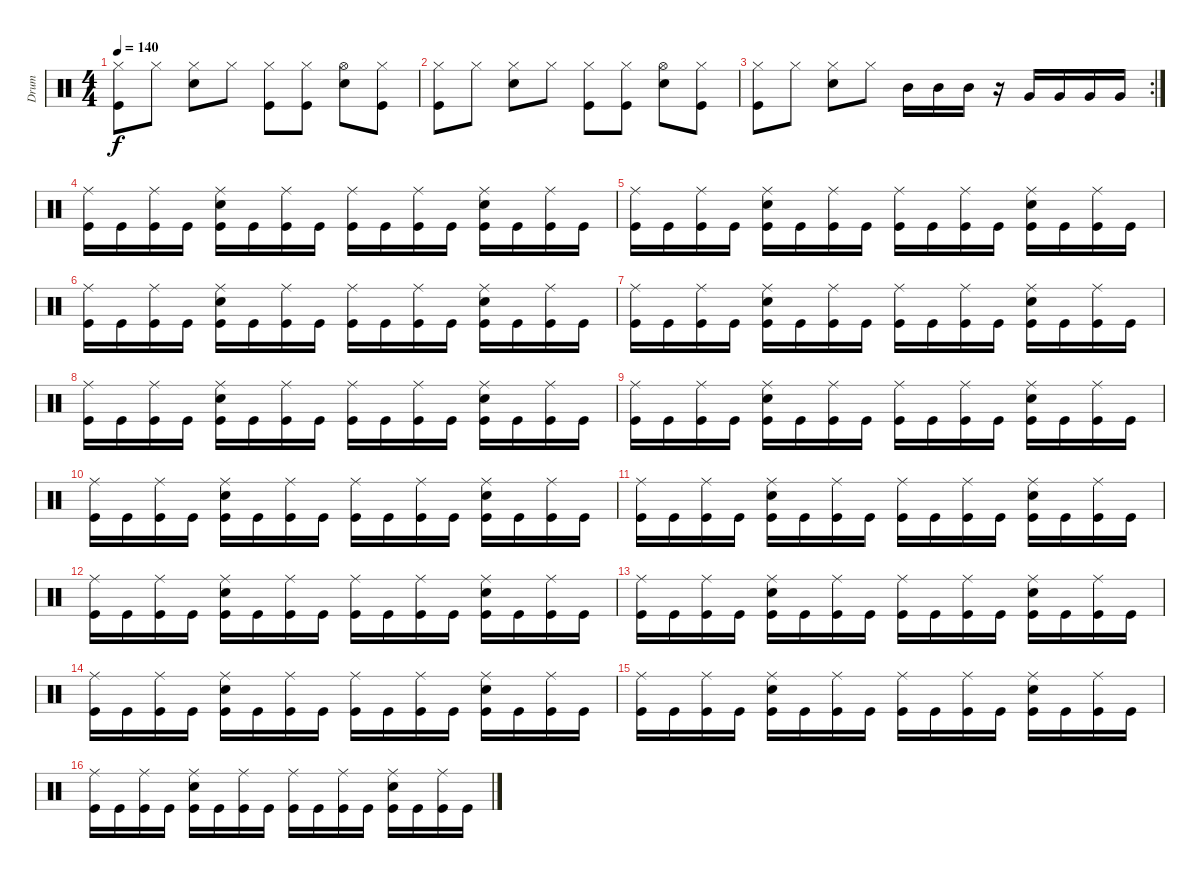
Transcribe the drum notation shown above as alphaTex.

\track ("Drum" "Drum") {instrument percussion}
\staff {score}
\articulation defaults
\ts (4 4)
\tempo 140
\clef neutral
\ks c
("Kick (hit)" "Hi-Hat (closed)").8{dy f} "Hi-Hat (closed)".8 ("Electric Snare (hit)" "Hi-Hat (closed)").8 "Hi-Hat (closed)".8 ("Kick (hit)" "Hi-Hat (closed)").8 ("Kick (hit)" "Hi-Hat (closed)").8 ("Electric Snare (hit)" "Hi-Hat (open)").8 ("Kick (hit)" "Hi-Hat (closed)").8 |
("Kick (hit)" "Hi-Hat (closed)").8 "Hi-Hat (closed)".8 ("Electric Snare (hit)" "Hi-Hat (closed)").8 "Hi-Hat (closed)".8 ("Kick (hit)" "Hi-Hat (closed)").8 ("Kick (hit)" "Hi-Hat (closed)").8 ("Electric Snare (hit)" "Hi-Hat (open)").8 ("Kick (hit)" "Hi-Hat (closed)").8 |
\rc 2
("Kick (hit)" "Hi-Hat (closed)").8 "Hi-Hat (closed)".8 ("Electric Snare (hit)" "Hi-Hat (closed)").8 "Hi-Hat (closed)".8 "Mid Tom (hit)".16 "Mid Tom (hit)".16 "Mid Tom (hit)".16 r.16 "Very Low Tom (hit)".16 "Very Low Tom (hit)".16 "Very Low Tom (hit)".16 "Very Low Tom (hit)".16 |
("Kick (hit)" "Ride (middle)").16 "Kick (hit)".16 ("Kick (hit)" "Ride (middle)").16 "Kick (hit)".16 ("Kick (hit)" "Electric Snare (hit)" "Ride (middle)").16 "Kick (hit)".16 ("Kick (hit)" "Ride (middle)").16 "Kick (hit)".16 ("Kick (hit)" "Ride (middle)").16 "Kick (hit)".16 ("Kick (hit)" "Ride (middle)").16 "Kick (hit)".16 ("Kick (hit)" "Electric Snare (hit)" "Ride (middle)").16 "Kick (hit)".16 ("Kick (hit)" "Ride (middle)").16 "Kick (hit)".16 |
("Kick (hit)" "Ride (middle)").16 "Kick (hit)".16 ("Kick (hit)" "Ride (middle)").16 "Kick (hit)".16 ("Kick (hit)" "Electric Snare (hit)" "Ride (middle)").16 "Kick (hit)".16 ("Kick (hit)" "Ride (middle)").16 "Kick (hit)".16 ("Kick (hit)" "Ride (middle)").16 "Kick (hit)".16 ("Kick (hit)" "Ride (middle)").16 "Kick (hit)".16 ("Kick (hit)" "Electric Snare (hit)" "Ride (middle)").16 "Kick (hit)".16 ("Kick (hit)" "Ride (middle)").16 "Kick (hit)".16 |
("Kick (hit)" "Ride (middle)").16 "Kick (hit)".16 ("Kick (hit)" "Ride (middle)").16 "Kick (hit)".16 ("Kick (hit)" "Electric Snare (hit)" "Ride (middle)").16 "Kick (hit)".16 ("Kick (hit)" "Ride (middle)").16 "Kick (hit)".16 ("Kick (hit)" "Ride (middle)").16 "Kick (hit)".16 ("Kick (hit)" "Ride (middle)").16 "Kick (hit)".16 ("Kick (hit)" "Electric Snare (hit)" "Ride (middle)").16 "Kick (hit)".16 ("Kick (hit)" "Ride (middle)").16 "Kick (hit)".16 |
("Kick (hit)" "Ride (middle)").16 "Kick (hit)".16 ("Kick (hit)" "Ride (middle)").16 "Kick (hit)".16 ("Kick (hit)" "Electric Snare (hit)" "Ride (middle)").16 "Kick (hit)".16 ("Kick (hit)" "Ride (middle)").16 "Kick (hit)".16 ("Kick (hit)" "Ride (middle)").16 "Kick (hit)".16 ("Kick (hit)" "Ride (middle)").16 "Kick (hit)".16 ("Kick (hit)" "Electric Snare (hit)" "Ride (middle)").16 "Kick (hit)".16 ("Kick (hit)" "Ride (middle)").16 "Kick (hit)".16 |
("Kick (hit)" "Ride (middle)").16 "Kick (hit)".16 ("Kick (hit)" "Ride (middle)").16 "Kick (hit)".16 ("Kick (hit)" "Electric Snare (hit)" "Ride (middle)").16 "Kick (hit)".16 ("Kick (hit)" "Ride (middle)").16 "Kick (hit)".16 ("Kick (hit)" "Ride (middle)").16 "Kick (hit)".16 ("Kick (hit)" "Ride (middle)").16 "Kick (hit)".16 ("Kick (hit)" "Electric Snare (hit)" "Ride (middle)").16 "Kick (hit)".16 ("Kick (hit)" "Ride (middle)").16 "Kick (hit)".16 |
("Kick (hit)" "Ride (middle)").16 "Kick (hit)".16 ("Kick (hit)" "Ride (middle)").16 "Kick (hit)".16 ("Kick (hit)" "Electric Snare (hit)" "Ride (middle)").16 "Kick (hit)".16 ("Kick (hit)" "Ride (middle)").16 "Kick (hit)".16 ("Kick (hit)" "Ride (middle)").16 "Kick (hit)".16 ("Kick (hit)" "Ride (middle)").16 "Kick (hit)".16 ("Kick (hit)" "Electric Snare (hit)" "Ride (middle)").16 "Kick (hit)".16 ("Kick (hit)" "Ride (middle)").16 "Kick (hit)".16 |
("Kick (hit)" "Ride (middle)").16 "Kick (hit)".16 ("Kick (hit)" "Ride (middle)").16 "Kick (hit)".16 ("Kick (hit)" "Electric Snare (hit)" "Ride (middle)").16 "Kick (hit)".16 ("Kick (hit)" "Ride (middle)").16 "Kick (hit)".16 ("Kick (hit)" "Ride (middle)").16 "Kick (hit)".16 ("Kick (hit)" "Ride (middle)").16 "Kick (hit)".16 ("Kick (hit)" "Electric Snare (hit)" "Ride (middle)").16 "Kick (hit)".16 ("Kick (hit)" "Ride (middle)").16 "Kick (hit)".16 |
("Kick (hit)" "Ride (middle)").16 "Kick (hit)".16 ("Kick (hit)" "Ride (middle)").16 "Kick (hit)".16 ("Kick (hit)" "Electric Snare (hit)" "Ride (middle)").16 "Kick (hit)".16 ("Kick (hit)" "Ride (middle)").16 "Kick (hit)".16 ("Kick (hit)" "Ride (middle)").16 "Kick (hit)".16 ("Kick (hit)" "Ride (middle)").16 "Kick (hit)".16 ("Kick (hit)" "Electric Snare (hit)" "Ride (middle)").16 "Kick (hit)".16 ("Kick (hit)" "Ride (middle)").16 "Kick (hit)".16 |
("Kick (hit)" "Ride (middle)").16 "Kick (hit)".16 ("Kick (hit)" "Ride (middle)").16 "Kick (hit)".16 ("Kick (hit)" "Electric Snare (hit)" "Ride (middle)").16 "Kick (hit)".16 ("Kick (hit)" "Ride (middle)").16 "Kick (hit)".16 ("Kick (hit)" "Ride (middle)").16 "Kick (hit)".16 ("Kick (hit)" "Ride (middle)").16 "Kick (hit)".16 ("Kick (hit)" "Electric Snare (hit)" "Ride (middle)").16 "Kick (hit)".16 ("Kick (hit)" "Ride (middle)").16 "Kick (hit)".16 |
("Kick (hit)" "Ride (middle)").16 "Kick (hit)".16 ("Kick (hit)" "Ride (middle)").16 "Kick (hit)".16 ("Kick (hit)" "Electric Snare (hit)" "Ride (middle)").16 "Kick (hit)".16 ("Kick (hit)" "Ride (middle)").16 "Kick (hit)".16 ("Kick (hit)" "Ride (middle)").16 "Kick (hit)".16 ("Kick (hit)" "Ride (middle)").16 "Kick (hit)".16 ("Kick (hit)" "Electric Snare (hit)" "Ride (middle)").16 "Kick (hit)".16 ("Kick (hit)" "Ride (middle)").16 "Kick (hit)".16 |
("Kick (hit)" "Ride (middle)").16 "Kick (hit)".16 ("Kick (hit)" "Ride (middle)").16 "Kick (hit)".16 ("Kick (hit)" "Electric Snare (hit)" "Ride (middle)").16 "Kick (hit)".16 ("Kick (hit)" "Ride (middle)").16 "Kick (hit)".16 ("Kick (hit)" "Ride (middle)").16 "Kick (hit)".16 ("Kick (hit)" "Ride (middle)").16 "Kick (hit)".16 ("Kick (hit)" "Electric Snare (hit)" "Ride (middle)").16 "Kick (hit)".16 ("Kick (hit)" "Ride (middle)").16 "Kick (hit)".16 |
("Kick (hit)" "Ride (middle)").16 "Kick (hit)".16 ("Kick (hit)" "Ride (middle)").16 "Kick (hit)".16 ("Kick (hit)" "Electric Snare (hit)" "Ride (middle)").16 "Kick (hit)".16 ("Kick (hit)" "Ride (middle)").16 "Kick (hit)".16 ("Kick (hit)" "Ride (middle)").16 "Kick (hit)".16 ("Kick (hit)" "Ride (middle)").16 "Kick (hit)".16 ("Kick (hit)" "Electric Snare (hit)" "Ride (middle)").16 "Kick (hit)".16 ("Kick (hit)" "Ride (middle)").16 "Kick (hit)".16 |
("Kick (hit)" "Ride (middle)").16 "Kick (hit)".16 ("Kick (hit)" "Ride (middle)").16 "Kick (hit)".16 ("Kick (hit)" "Electric Snare (hit)" "Ride (middle)").16 "Kick (hit)".16 ("Kick (hit)" "Ride (middle)").16 "Kick (hit)".16 ("Kick (hit)" "Ride (middle)").16 "Kick (hit)".16 ("Kick (hit)" "Ride (middle)").16 "Kick (hit)".16 ("Kick (hit)" "Electric Snare (hit)" "Ride (middle)").16 "Kick (hit)".16 ("Kick (hit)" "Ride (middle)").16 "Kick (hit)".16
